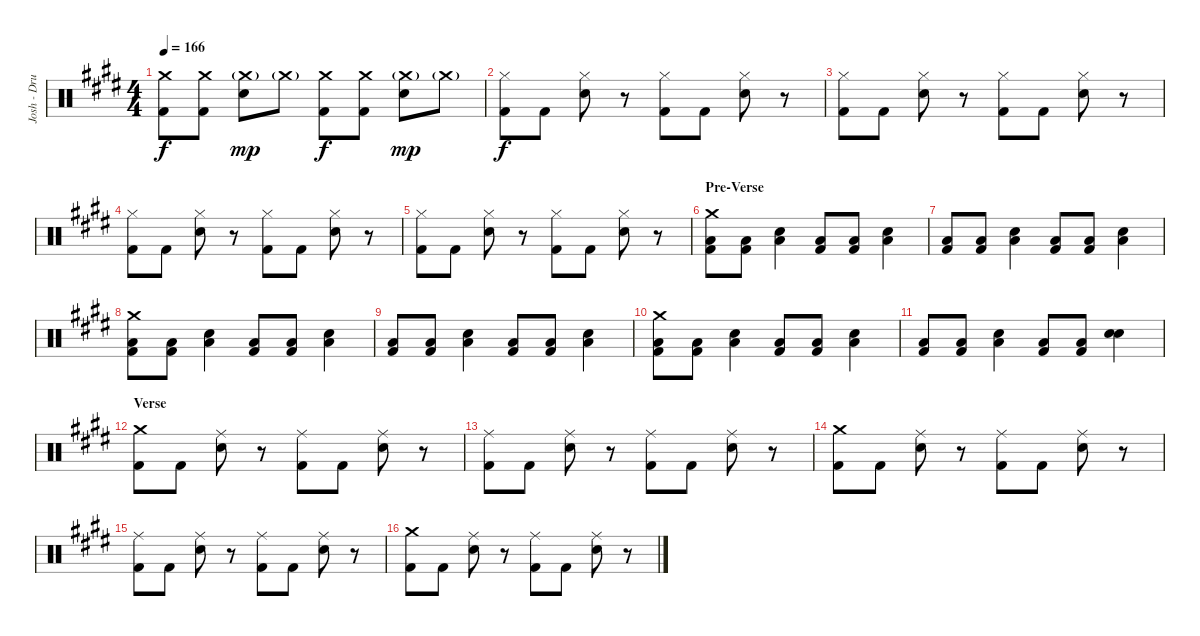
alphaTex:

\track ("Josh - Drums" "Josh - Dru") {instrument percussion}
\staff {score}
\articulation defaults
\ts (4 4)
\tempo 166
\clef neutral
\ks e
("Crash medium (hit)" "Kick (hit) 2").8{dy f} ("Crash medium (hit)" "Kick (hit) 2").8 ("Crash medium (hit)"{g} "Electric Snare (hit)").8{dy mp} "Crash medium (hit)"{g}.8 ("Crash medium (hit)" "Kick (hit) 2").8{dy f} ("Crash medium (hit)" "Kick (hit) 2").8 ("Crash medium (hit)"{g} "Electric Snare (hit)").8{dy mp} "Crash medium (hit)"{g}.8 |
("Hi-Hat (closed)" "Kick (hit) 2").8{dy f} "Kick (hit) 2".8 ("Hi-Hat (closed)" "Electric Snare (hit)").8 r.8 ("Hi-Hat (closed)" "Kick (hit) 2").8 "Kick (hit) 2".8 ("Hi-Hat (closed)" "Electric Snare (hit)").8 r.8 |
("Hi-Hat (closed)" "Kick (hit) 2").8 "Kick (hit) 2".8 ("Hi-Hat (closed)" "Electric Snare (hit)").8 r.8 ("Hi-Hat (closed)" "Kick (hit) 2").8 "Kick (hit) 2".8 ("Hi-Hat (closed)" "Electric Snare (hit)").8 r.8 |
("Hi-Hat (closed)" "Kick (hit) 2").8 "Kick (hit) 2".8 ("Hi-Hat (closed)" "Electric Snare (hit)").8 r.8 ("Hi-Hat (closed)" "Kick (hit) 2").8 "Kick (hit) 2".8 ("Hi-Hat (closed)" "Electric Snare (hit)").8 r.8 |
("Hi-Hat (closed)" "Kick (hit) 2").8 "Kick (hit) 2".8 ("Hi-Hat (closed)" "Electric Snare (hit)").8 r.8 ("Hi-Hat (closed)" "Kick (hit) 2").8 "Kick (hit) 2".8 ("Hi-Hat (closed)" "Electric Snare (hit)").8 r.8 |
\section ("" "Pre-Verse")
("Crash medium (hit)" "Low Floor Tom (hit)" "Kick (hit) 2").8 ("Low Floor Tom (hit)" "Kick (hit) 2").8 ("Low Floor Tom (hit)" "Electric Snare (hit)").4 ("Low Floor Tom (hit)" "Kick (hit) 2").8 ("Low Floor Tom (hit)" "Kick (hit) 2").8 ("Low Floor Tom (hit)" "Electric Snare (hit)").4 |
("Low Floor Tom (hit)" "Kick (hit) 2").8 ("Low Floor Tom (hit)" "Kick (hit) 2").8 ("Low Floor Tom (hit)" "Electric Snare (hit)").4 ("Low Floor Tom (hit)" "Kick (hit) 2").8 ("Low Floor Tom (hit)" "Kick (hit) 2").8 ("Low Floor Tom (hit)" "Electric Snare (hit)").4 |
("Crash medium (hit)" "Low Floor Tom (hit)" "Kick (hit) 2").8 ("Low Floor Tom (hit)" "Kick (hit) 2").8 ("Low Floor Tom (hit)" "Electric Snare (hit)").4 ("Low Floor Tom (hit)" "Kick (hit) 2").8 ("Low Floor Tom (hit)" "Kick (hit) 2").8 ("Low Floor Tom (hit)" "Electric Snare (hit)").4 |
("Low Floor Tom (hit)" "Kick (hit) 2").8 ("Low Floor Tom (hit)" "Kick (hit) 2").8 ("Low Floor Tom (hit)" "Electric Snare (hit)").4 ("Low Floor Tom (hit)" "Kick (hit) 2").8 ("Low Floor Tom (hit)" "Kick (hit) 2").8 ("Low Floor Tom (hit)" "Electric Snare (hit)").4 |
("Crash medium (hit)" "Low Floor Tom (hit)" "Kick (hit) 2").8 ("Low Floor Tom (hit)" "Kick (hit) 2").8 ("Low Floor Tom (hit)" "Electric Snare (hit)").4 ("Low Floor Tom (hit)" "Kick (hit) 2").8 ("Low Floor Tom (hit)" "Kick (hit) 2").8 ("Low Floor Tom (hit)" "Electric Snare (hit)").4 |
("Low Floor Tom (hit)" "Kick (hit) 2").8 ("Low Floor Tom (hit)" "Kick (hit) 2").8 ("Low Floor Tom (hit)" "Electric Snare (hit)").4 ("Low Floor Tom (hit)" "Kick (hit) 2").8 ("Low Floor Tom (hit)" "Kick (hit) 2").8 ("Electric Snare (hit)" "Electric Snare (hit)").4 |
\section ("" "Verse")
("Crash medium (hit)" "Kick (hit) 2").8 "Kick (hit) 2".8 ("Ride (middle)" "Electric Snare (hit)").8 r.8 ("Ride (middle)" "Kick (hit) 2").8 "Kick (hit) 2".8 ("Ride (middle)" "Electric Snare (hit)").8 r.8 |
("Ride (middle)" "Kick (hit) 2").8 "Kick (hit) 2".8 ("Ride (middle)" "Electric Snare (hit)").8 r.8 ("Ride (middle)" "Kick (hit) 2").8 "Kick (hit) 2".8 ("Ride (middle)" "Electric Snare (hit)").8 r.8 |
("Crash medium (hit)" "Kick (hit) 2").8 "Kick (hit) 2".8 ("Ride (middle)" "Electric Snare (hit)").8 r.8 ("Ride (middle)" "Kick (hit) 2").8 "Kick (hit) 2".8 ("Ride (middle)" "Electric Snare (hit)").8 r.8 |
("Ride (middle)" "Kick (hit) 2").8 "Kick (hit) 2".8 ("Ride (middle)" "Electric Snare (hit)").8 r.8 ("Ride (middle)" "Kick (hit) 2").8 "Kick (hit) 2".8 ("Ride (middle)" "Electric Snare (hit)").8 r.8 |
("Crash medium (hit)" "Kick (hit) 2").8 "Kick (hit) 2".8 ("Ride (middle)" "Electric Snare (hit)").8 r.8 ("Ride (middle)" "Kick (hit) 2").8 "Kick (hit) 2".8 ("Ride (middle)" "Electric Snare (hit)").8 r.8
